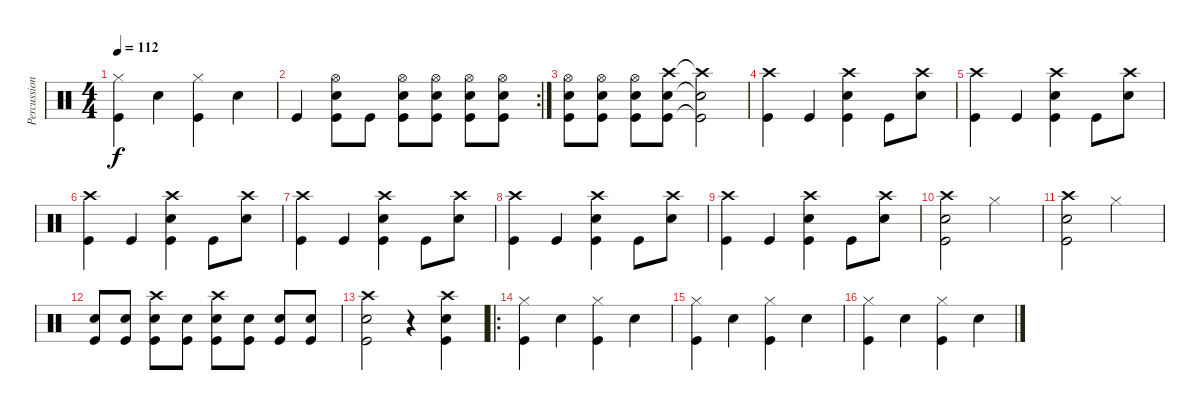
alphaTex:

\track ("Percussions" "Percussion") {instrument percussion}
\staff {score}
\articulation defaults
\ts (4 4)
\tempo 112
\clef neutral
\ks c
("Kick (hit)" "Hi-Hat (closed)").4{dy f} "Electric Snare (hit)".4 ("Kick (hit)" "Hi-Hat (closed)").4 "Electric Snare (hit)".4 |
\rc 2 "Kick (hit)".4
("Kick (hit)" "Electric Snare (hit)" "Hi-Hat (open)").8 "Kick (hit)".8 ("Kick (hit)" "Electric Snare (hit)" "Hi-Hat (open)").8 ("Kick (hit)" "Electric Snare (hit)" "Hi-Hat (open)").8 ("Kick (hit)" "Electric Snare (hit)" "Hi-Hat (open)").8 ("Kick (hit)" "Electric Snare (hit)" "Hi-Hat (open)").8 |
("Kick (hit)" "Electric Snare (hit)" "Hi-Hat (open)").8 ("Kick (hit)" "Electric Snare (hit)" "Hi-Hat (open)").8 ("Kick (hit)" "Electric Snare (hit)" "Hi-Hat (open)").8 ("Kick (hit)" "Electric Snare (hit)" "Crash high (hit)").8 ("Kick (hit)"{t} "Electric Snare (hit)"{t} "Crash high (hit)"{t}).2 |
("Kick (hit)" "Crash high (hit)").4 "Kick (hit)".4 ("Kick (hit)" "Electric Snare (hit)" "Crash high (hit)").4 "Kick (hit)".8 ("Crash high (hit)" "Electric Snare (hit)").8 |
("Crash high (hit)" "Kick (hit)").4 "Kick (hit)".4 ("Crash high (hit)" "Kick (hit)" "Electric Snare (hit)").4 "Kick (hit)".8 ("Crash high (hit)" "Electric Snare (hit)").8 |
("Crash high (hit)" "Kick (hit)").4 "Kick (hit)".4 ("Crash high (hit)" "Kick (hit)" "Electric Snare (hit)").4 "Kick (hit)".8 ("Crash high (hit)" "Electric Snare (hit)").8 |
("Crash high (hit)" "Kick (hit)").4 "Kick (hit)".4 ("Crash high (hit)" "Kick (hit)" "Electric Snare (hit)").4 "Kick (hit)".8 ("Crash high (hit)" "Electric Snare (hit)").8 |
("Crash high (hit)" "Kick (hit)").4 "Kick (hit)".4 ("Crash high (hit)" "Kick (hit)" "Electric Snare (hit)").4 "Kick (hit)".8 ("Crash high (hit)" "Electric Snare (hit)").8 |
("Crash high (hit)" "Kick (hit)").4 "Kick (hit)".4 ("Crash high (hit)" "Kick (hit)" "Electric Snare (hit)").4 "Kick (hit)".8 ("Crash high (hit)" "Electric Snare (hit)").8 |
("Crash high (hit)" "Kick (hit)" "Electric Snare (hit)").2 "Hi-Hat (closed)".2 |
("Crash high (hit)" "Kick (hit)" "Electric Snare (hit)").2 "Hi-Hat (closed)".2 |
("Kick (hit)" "Electric Snare (hit)").8 ("Kick (hit)" "Electric Snare (hit)").8 ("Kick (hit)" "Electric Snare (hit)" "Crash high (hit)").8 ("Kick (hit)" "Electric Snare (hit)").8 ("Kick (hit)" "Electric Snare (hit)" "Crash high (hit)").8 ("Kick (hit)" "Electric Snare (hit)").8 ("Kick (hit)" "Electric Snare (hit)").8 ("Kick (hit)" "Electric Snare (hit)").8 |
("Electric Snare (hit)" "Kick (hit)" "Crash high (hit)").2 r.4 ("Electric Snare (hit)" "Crash high (hit)" "Kick (hit)").4 |
\ro
("Kick (hit)" "Hi-Hat (closed)").4 "Electric Snare (hit)".4 ("Kick (hit)" "Hi-Hat (closed)").4 "Electric Snare (hit)".4 |
("Kick (hit)" "Hi-Hat (closed)").4 "Electric Snare (hit)".4 ("Kick (hit)" "Hi-Hat (closed)").4 "Electric Snare (hit)".4 |
("Kick (hit)" "Hi-Hat (closed)").4 "Electric Snare (hit)".4 ("Kick (hit)" "Hi-Hat (closed)").4 "Electric Snare (hit)".4
